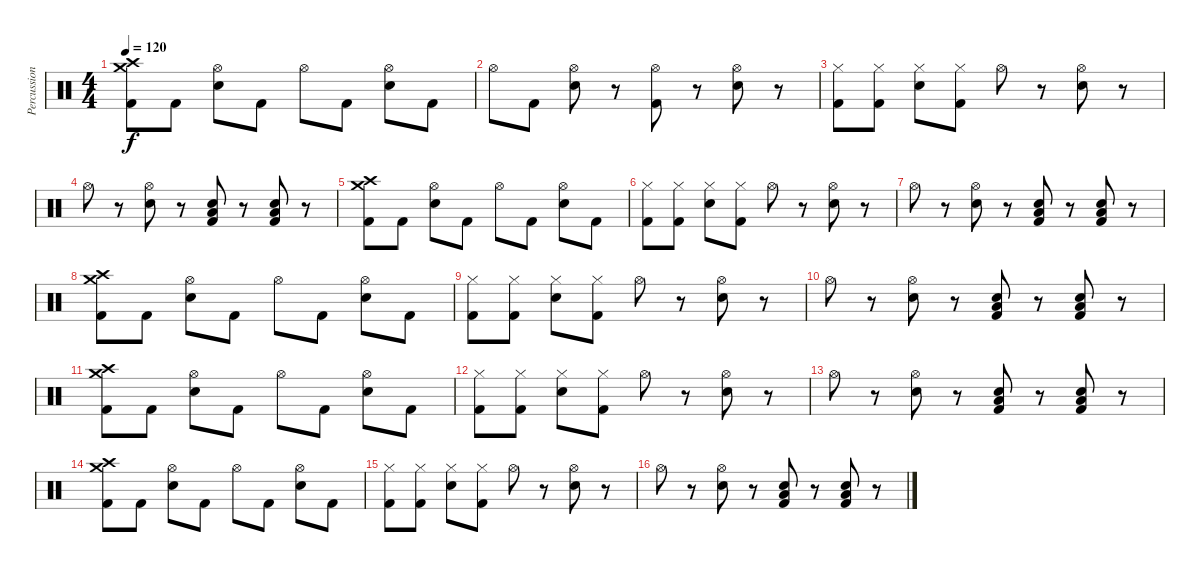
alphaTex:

\track ("Percussion" "Percussion") {instrument percussion}
\staff {score}
\articulation defaults
\ts (4 4)
\tempo 120
\clef neutral
\ks c
("Crash medium (hit)" "Crash high (hit)" "Kick (hit) 2").8{dy f} "Kick (hit) 2".8 ("Hi-Hat (open)" "Electric Snare (hit)").8 "Kick (hit) 2".8 "Hi-Hat (open)".8 "Kick (hit) 2".8 ("Hi-Hat (open)" "Electric Snare (hit)").8 "Kick (hit) 2".8 |
"Hi-Hat (open)".8 "Kick (hit) 2".8 ("Hi-Hat (open)" "Electric Snare (hit)").8 r.8 ("Hi-Hat (open)" "Kick (hit) 2").8 r.8 ("Hi-Hat (open)" "Electric Snare (hit)").8 r.8 |
("Hi-Hat (closed)" "Kick (hit) 2").8 ("Hi-Hat (closed)" "Kick (hit) 2").8 ("Hi-Hat (closed)" "Electric Snare (hit)").8 ("Hi-Hat (closed)" "Kick (hit) 2").8 "Hi-Hat (open)".8 r.8 ("Hi-Hat (open)" "Electric Snare (hit)").8 r.8 |
"Hi-Hat (open)".8 r.8 ("Hi-Hat (open)" "Electric Snare (hit)").8 r.8 ("Electric Snare (hit)" "Low Floor Tom (hit)" "Kick (hit) 2").8 r.8 ("Electric Snare (hit)" "Low Floor Tom (hit)" "Kick (hit) 2").8 r.8 |
("Crash medium (hit)" "Crash high (hit)" "Kick (hit) 2").8 "Kick (hit) 2".8 ("Hi-Hat (open)" "Electric Snare (hit)").8 "Kick (hit) 2".8 "Hi-Hat (open)".8 "Kick (hit) 2".8 ("Hi-Hat (open)" "Electric Snare (hit)").8 "Kick (hit) 2".8 |
("Hi-Hat (closed)" "Kick (hit) 2").8 ("Hi-Hat (closed)" "Kick (hit) 2").8 ("Hi-Hat (closed)" "Electric Snare (hit)").8 ("Hi-Hat (closed)" "Kick (hit) 2").8 "Hi-Hat (open)".8 r.8 ("Hi-Hat (open)" "Electric Snare (hit)").8 r.8 |
"Hi-Hat (open)".8 r.8 ("Hi-Hat (open)" "Electric Snare (hit)").8 r.8 ("Electric Snare (hit)" "Low Floor Tom (hit)" "Kick (hit) 2").8 r.8 ("Electric Snare (hit)" "Low Floor Tom (hit)" "Kick (hit) 2").8 r.8 |
("Crash medium (hit)" "Crash high (hit)" "Kick (hit) 2").8 "Kick (hit) 2".8 ("Hi-Hat (open)" "Electric Snare (hit)").8 "Kick (hit) 2".8 "Hi-Hat (open)".8 "Kick (hit) 2".8 ("Hi-Hat (open)" "Electric Snare (hit)").8 "Kick (hit) 2".8 |
("Hi-Hat (closed)" "Kick (hit) 2").8 ("Hi-Hat (closed)" "Kick (hit) 2").8 ("Hi-Hat (closed)" "Electric Snare (hit)").8 ("Hi-Hat (closed)" "Kick (hit) 2").8 "Hi-Hat (open)".8 r.8 ("Hi-Hat (open)" "Electric Snare (hit)").8 r.8 |
"Hi-Hat (open)".8 r.8 ("Hi-Hat (open)" "Electric Snare (hit)").8 r.8 ("Electric Snare (hit)" "Low Floor Tom (hit)" "Kick (hit) 2").8 r.8 ("Electric Snare (hit)" "Low Floor Tom (hit)" "Kick (hit) 2").8 r.8 |
("Crash medium (hit)" "Crash high (hit)" "Kick (hit) 2").8 "Kick (hit) 2".8 ("Hi-Hat (open)" "Electric Snare (hit)").8 "Kick (hit) 2".8 "Hi-Hat (open)".8 "Kick (hit) 2".8 ("Hi-Hat (open)" "Electric Snare (hit)").8 "Kick (hit) 2".8 |
("Hi-Hat (closed)" "Kick (hit) 2").8 ("Hi-Hat (closed)" "Kick (hit) 2").8 ("Hi-Hat (closed)" "Electric Snare (hit)").8 ("Hi-Hat (closed)" "Kick (hit) 2").8 "Hi-Hat (open)".8 r.8 ("Hi-Hat (open)" "Electric Snare (hit)").8 r.8 |
"Hi-Hat (open)".8 r.8 ("Hi-Hat (open)" "Electric Snare (hit)").8 r.8 ("Electric Snare (hit)" "Low Floor Tom (hit)" "Kick (hit) 2").8 r.8 ("Electric Snare (hit)" "Low Floor Tom (hit)" "Kick (hit) 2").8 r.8 |
("Crash medium (hit)" "Crash high (hit)" "Kick (hit) 2").8 "Kick (hit) 2".8 ("Hi-Hat (open)" "Electric Snare (hit)").8 "Kick (hit) 2".8 "Hi-Hat (open)".8 "Kick (hit) 2".8 ("Hi-Hat (open)" "Electric Snare (hit)").8 "Kick (hit) 2".8 |
("Hi-Hat (closed)" "Kick (hit) 2").8 ("Hi-Hat (closed)" "Kick (hit) 2").8 ("Hi-Hat (closed)" "Electric Snare (hit)").8 ("Hi-Hat (closed)" "Kick (hit) 2").8 "Hi-Hat (open)".8 r.8 ("Hi-Hat (open)" "Electric Snare (hit)").8 r.8 |
"Hi-Hat (open)".8 r.8 ("Hi-Hat (open)" "Electric Snare (hit)").8 r.8 ("Electric Snare (hit)" "Low Floor Tom (hit)" "Kick (hit) 2").8 r.8 ("Electric Snare (hit)" "Low Floor Tom (hit)" "Kick (hit) 2").8 r.8
